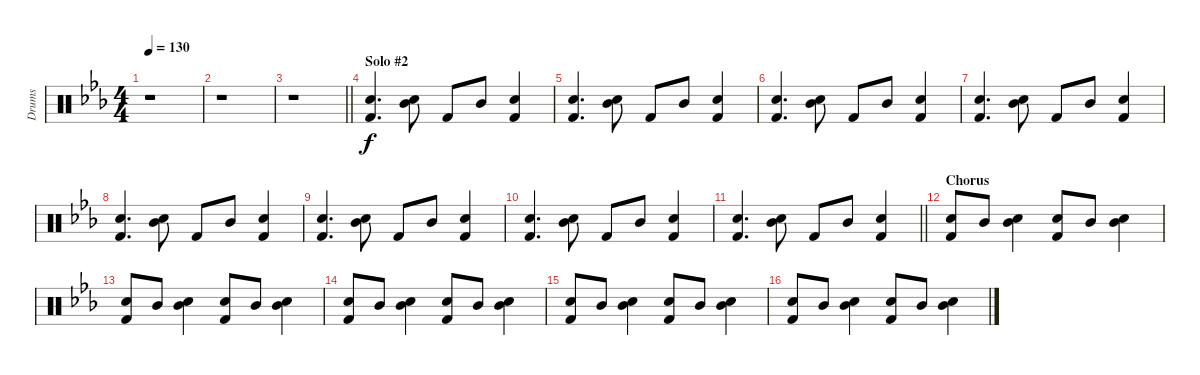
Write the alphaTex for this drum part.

\track ("Drums" "Drums") {instrument percussion}
\staff {score}
\articulation defaults
\ts (4 4)
\tempo 130
\clef neutral
\ks eb
r.1{dy f} |
r.1 |
\barLineRight lightlight
r.1 |
\section ("" "Solo #2")
("Electric Snare (hit)" "Kick (hit) 2").4{d} ("Mid Tom (hit)" "Electric Snare (hit)").8 "Kick (hit) 2".8 "Mid Tom (hit)".8 ("Electric Snare (hit)" "Kick (hit) 2").4 |
("Electric Snare (hit)" "Kick (hit) 2").4{d} ("Mid Tom (hit)" "Electric Snare (hit)").8 "Kick (hit) 2".8 "Mid Tom (hit)".8 ("Electric Snare (hit)" "Kick (hit) 2").4 |
("Electric Snare (hit)" "Kick (hit) 2").4{d} ("Mid Tom (hit)" "Electric Snare (hit)").8 "Kick (hit) 2".8 "Mid Tom (hit)".8 ("Electric Snare (hit)" "Kick (hit) 2").4 |
("Electric Snare (hit)" "Kick (hit) 2").4{d} ("Mid Tom (hit)" "Electric Snare (hit)").8 "Kick (hit) 2".8 "Mid Tom (hit)".8 ("Electric Snare (hit)" "Kick (hit) 2").4 |
("Electric Snare (hit)" "Kick (hit) 2").4{d} ("Mid Tom (hit)" "Electric Snare (hit)").8 "Kick (hit) 2".8 "Mid Tom (hit)".8 ("Electric Snare (hit)" "Kick (hit) 2").4 |
("Electric Snare (hit)" "Kick (hit) 2").4{d} ("Mid Tom (hit)" "Electric Snare (hit)").8 "Kick (hit) 2".8 "Mid Tom (hit)".8 ("Electric Snare (hit)" "Kick (hit) 2").4 |
("Electric Snare (hit)" "Kick (hit) 2").4{d} ("Mid Tom (hit)" "Electric Snare (hit)").8 "Kick (hit) 2".8 "Mid Tom (hit)".8 ("Electric Snare (hit)" "Kick (hit) 2").4 |
\barLineRight lightlight
("Electric Snare (hit)" "Kick (hit) 2").4{d} ("Mid Tom (hit)" "Electric Snare (hit)").8 "Kick (hit) 2".8 "Mid Tom (hit)".8 ("Electric Snare (hit)" "Kick (hit) 2").4 |
\section ("" "Chorus")
("Electric Snare (hit)" "Kick (hit) 2").8 "Mid Tom (hit)".8 ("Mid Tom (hit)" "Electric Snare (hit)").4 ("Electric Snare (hit)" "Kick (hit) 2").8 "Mid Tom (hit)".8 ("Mid Tom (hit)" "Electric Snare (hit)").4 |
("Electric Snare (hit)" "Kick (hit) 2").8 "Mid Tom (hit)".8 ("Mid Tom (hit)" "Electric Snare (hit)").4 ("Electric Snare (hit)" "Kick (hit) 2").8 "Mid Tom (hit)".8 ("Mid Tom (hit)" "Electric Snare (hit)").4 |
("Electric Snare (hit)" "Kick (hit) 2").8 "Mid Tom (hit)".8 ("Mid Tom (hit)" "Electric Snare (hit)").4 ("Electric Snare (hit)" "Kick (hit) 2").8 "Mid Tom (hit)".8 ("Mid Tom (hit)" "Electric Snare (hit)").4 |
("Electric Snare (hit)" "Kick (hit) 2").8 "Mid Tom (hit)".8 ("Mid Tom (hit)" "Electric Snare (hit)").4 ("Electric Snare (hit)" "Kick (hit) 2").8 "Mid Tom (hit)".8 ("Mid Tom (hit)" "Electric Snare (hit)").4 |
("Electric Snare (hit)" "Kick (hit) 2").8 "Mid Tom (hit)".8 ("Mid Tom (hit)" "Electric Snare (hit)").4 ("Electric Snare (hit)" "Kick (hit) 2").8 "Mid Tom (hit)".8 ("Mid Tom (hit)" "Electric Snare (hit)").4
